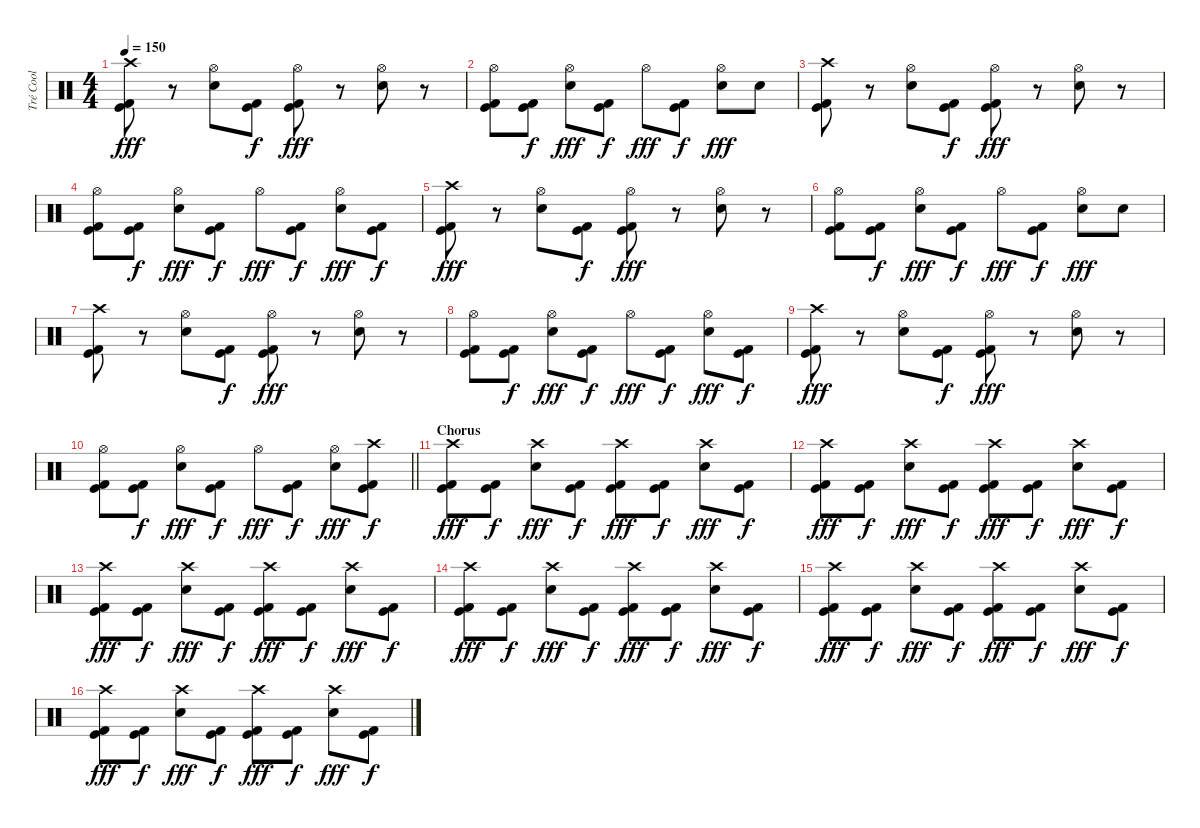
\track ("Tré Cool" "Tré Cool") {instrument percussion}
\staff {score}
\articulation defaults
\ts (4 4)
\tempo 150
\clef neutral
\ks c
("Crash high (hit)" "Kick (hit)" "Kick (hit) 2").8{dy fff} r.8 ("Hi-Hat (open)" "Snare (hit) 2").8 ("Kick (hit)" "Kick (hit) 2").8{dy f} ("Hi-Hat (open)" "Kick (hit)" "Kick (hit) 2").8{dy fff} r.8 ("Hi-Hat (open)" "Snare (hit) 2").8 r.8 |
("Hi-Hat (open)" "Kick (hit)" "Kick (hit) 2").8 ("Kick (hit)" "Kick (hit) 2").8{dy f} ("Hi-Hat (open)" "Snare (hit) 2").8{dy fff} ("Kick (hit)" "Kick (hit) 2").8{dy f} "Hi-Hat (open)".8{dy fff} ("Kick (hit)" "Kick (hit) 2").8{dy f} ("Hi-Hat (open)" "Snare (hit) 2").8{dy fff} "Snare (hit) 2".8 |
("Crash high (hit)" "Kick (hit)" "Kick (hit) 2").8 r.8 ("Hi-Hat (open)" "Snare (hit) 2").8 ("Kick (hit)" "Kick (hit) 2").8{dy f} ("Hi-Hat (open)" "Kick (hit)" "Kick (hit) 2").8{dy fff} r.8 ("Hi-Hat (open)" "Snare (hit) 2").8 r.8 |
("Hi-Hat (open)" "Kick (hit)" "Kick (hit) 2").8 ("Kick (hit)" "Kick (hit) 2").8{dy f} ("Hi-Hat (open)" "Snare (hit) 2").8{dy fff} ("Kick (hit)" "Kick (hit) 2").8{dy f} "Hi-Hat (open)".8{dy fff} ("Kick (hit)" "Kick (hit) 2").8{dy f} ("Hi-Hat (open)" "Snare (hit) 2").8{dy fff} ("Kick (hit)" "Kick (hit) 2").8{dy f} |
("Crash high (hit)" "Kick (hit)" "Kick (hit) 2").8{dy fff} r.8 ("Hi-Hat (open)" "Snare (hit) 2").8 ("Kick (hit)" "Kick (hit) 2").8{dy f} ("Hi-Hat (open)" "Kick (hit)" "Kick (hit) 2").8{dy fff} r.8 ("Hi-Hat (open)" "Snare (hit) 2").8 r.8 |
("Hi-Hat (open)" "Kick (hit)" "Kick (hit) 2").8 ("Kick (hit)" "Kick (hit) 2").8{dy f} ("Hi-Hat (open)" "Snare (hit) 2").8{dy fff} ("Kick (hit)" "Kick (hit) 2").8{dy f} "Hi-Hat (open)".8{dy fff} ("Kick (hit)" "Kick (hit) 2").8{dy f} ("Hi-Hat (open)" "Snare (hit) 2").8{dy fff} "Snare (hit) 2".8 |
("Crash high (hit)" "Kick (hit)" "Kick (hit) 2").8 r.8 ("Hi-Hat (open)" "Snare (hit) 2").8 ("Kick (hit)" "Kick (hit) 2").8{dy f} ("Hi-Hat (open)" "Kick (hit)" "Kick (hit) 2").8{dy fff} r.8 ("Hi-Hat (open)" "Snare (hit) 2").8 r.8 |
("Hi-Hat (open)" "Kick (hit)" "Kick (hit) 2").8 ("Kick (hit)" "Kick (hit) 2").8{dy f} ("Hi-Hat (open)" "Snare (hit) 2").8{dy fff} ("Kick (hit)" "Kick (hit) 2").8{dy f} "Hi-Hat (open)".8{dy fff} ("Kick (hit)" "Kick (hit) 2").8{dy f} ("Hi-Hat (open)" "Snare (hit) 2").8{dy fff} ("Kick (hit)" "Kick (hit) 2").8{dy f} |
("Crash high (hit)" "Kick (hit)" "Kick (hit) 2").8{dy fff} r.8 ("Hi-Hat (open)" "Snare (hit) 2").8 ("Kick (hit)" "Kick (hit) 2").8{dy f} ("Hi-Hat (open)" "Kick (hit)" "Kick (hit) 2").8{dy fff} r.8 ("Hi-Hat (open)" "Snare (hit) 2").8 r.8 |
\barLineRight lightlight
("Hi-Hat (open)" "Kick (hit)" "Kick (hit) 2").8 ("Kick (hit)" "Kick (hit) 2").8{dy f} ("Hi-Hat (open)" "Snare (hit) 2").8{dy fff} ("Kick (hit)" "Kick (hit) 2").8{dy f} "Hi-Hat (open)".8{dy fff} ("Kick (hit)" "Kick (hit) 2").8{dy f} ("Hi-Hat (open)" "Snare (hit) 2").8{dy fff} ("Crash high (hit)" "Kick (hit)" "Kick (hit) 2").8{dy f} |
\section ("" "Chorus")
("Crash high (hit)" "Kick (hit)" "Kick (hit) 2").8{dy fff} ("Kick (hit)" "Kick (hit) 2").8{dy f} ("Crash high (hit)" "Snare (hit) 2").8{dy fff} ("Kick (hit)" "Kick (hit) 2").8{dy f} ("Crash high (hit)" "Kick (hit)" "Kick (hit) 2").8{dy fff} ("Kick (hit)" "Kick (hit) 2").8{dy f} ("Crash high (hit)" "Snare (hit) 2").8{dy fff} ("Kick (hit)" "Kick (hit) 2").8{dy f} |
("Crash high (hit)" "Kick (hit)" "Kick (hit) 2").8{dy fff} ("Kick (hit)" "Kick (hit) 2").8{dy f} ("Crash high (hit)" "Snare (hit) 2").8{dy fff} ("Kick (hit)" "Kick (hit) 2").8{dy f} ("Crash high (hit)" "Kick (hit)" "Kick (hit) 2").8{dy fff} ("Kick (hit)" "Kick (hit) 2").8{dy f} ("Crash high (hit)" "Snare (hit) 2").8{dy fff} ("Kick (hit)" "Kick (hit) 2").8{dy f} |
("Crash high (hit)" "Kick (hit)" "Kick (hit) 2").8{dy fff} ("Kick (hit)" "Kick (hit) 2").8{dy f} ("Crash high (hit)" "Snare (hit) 2").8{dy fff} ("Kick (hit)" "Kick (hit) 2").8{dy f} ("Crash high (hit)" "Kick (hit)" "Kick (hit) 2").8{dy fff} ("Kick (hit)" "Kick (hit) 2").8{dy f} ("Crash high (hit)" "Snare (hit) 2").8{dy fff} ("Kick (hit)" "Kick (hit) 2").8{dy f} |
("Crash high (hit)" "Kick (hit)" "Kick (hit) 2").8{dy fff} ("Kick (hit)" "Kick (hit) 2").8{dy f} ("Crash high (hit)" "Snare (hit) 2").8{dy fff} ("Kick (hit)" "Kick (hit) 2").8{dy f} ("Crash high (hit)" "Kick (hit)" "Kick (hit) 2").8{dy fff} ("Kick (hit)" "Kick (hit) 2").8{dy f} ("Crash high (hit)" "Snare (hit) 2").8{dy fff} ("Kick (hit)" "Kick (hit) 2").8{dy f} |
("Crash high (hit)" "Kick (hit)" "Kick (hit) 2").8{dy fff} ("Kick (hit)" "Kick (hit) 2").8{dy f} ("Crash high (hit)" "Snare (hit) 2").8{dy fff} ("Kick (hit)" "Kick (hit) 2").8{dy f} ("Crash high (hit)" "Kick (hit)" "Kick (hit) 2").8{dy fff} ("Kick (hit)" "Kick (hit) 2").8{dy f} ("Crash high (hit)" "Snare (hit) 2").8{dy fff} ("Kick (hit)" "Kick (hit) 2").8{dy f} |
("Crash high (hit)" "Kick (hit)" "Kick (hit) 2").8{dy fff} ("Kick (hit)" "Kick (hit) 2").8{dy f} ("Crash high (hit)" "Snare (hit) 2").8{dy fff} ("Kick (hit)" "Kick (hit) 2").8{dy f} ("Crash high (hit)" "Kick (hit)" "Kick (hit) 2").8{dy fff} ("Kick (hit)" "Kick (hit) 2").8{dy f} ("Crash high (hit)" "Snare (hit) 2").8{dy fff} ("Kick (hit)" "Kick (hit) 2").8{dy f}
